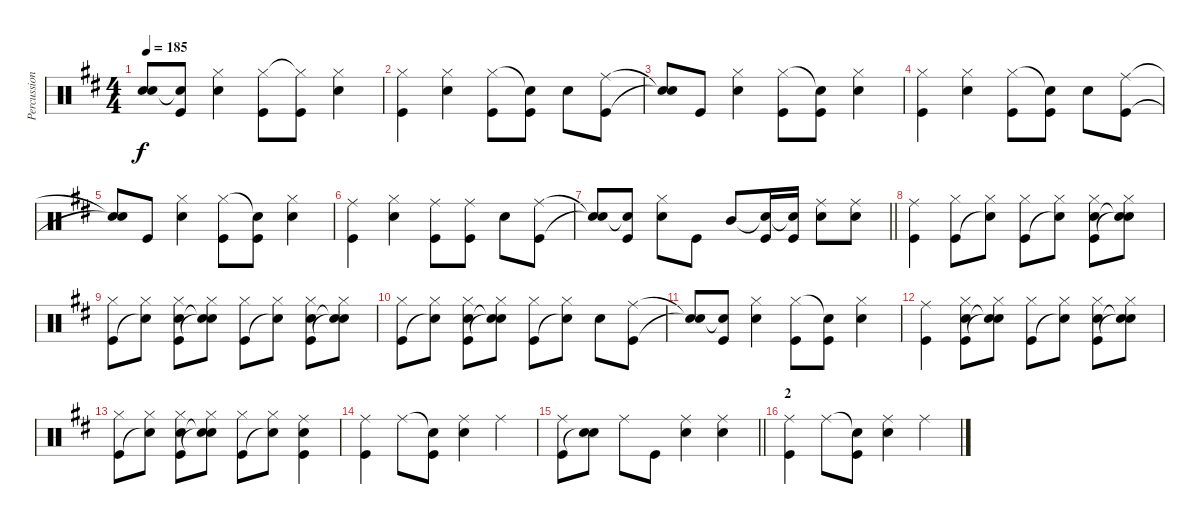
\track ("Percussion" "Percussion") {instrument percussion}
\staff {score}
\articulation defaults
\ts (4 4)
\tempo 185
\clef neutral
\ks d
("Snare (hit)"{t} "Snare (hit)"{t}).8{dy f} ("Snare (hit)"{t} "Kick (hit)").8 ("Hi-Hat (closed)" "Snare (hit) 2").4 ("Hi-Hat (closed)" "Kick (hit)").8 ("Hi-Hat (closed)"{t} "Kick (hit)").8 ("Hi-Hat (closed)" "Snare (hit) 2").4 |
("Hi-Hat (closed)" "Kick (hit)").4 ("Hi-Hat (closed)" "Snare (hit) 2").4 ("Hi-Hat (closed)" "Kick (hit)").8 ("Snare (hit)"{t} "Kick (hit)").8 "Snare (hit) 2".8 ("Ride (middle)" "Kick (hit)").8 |
("Snare (hit)"{t} "Snare (hit)"{t}).8 "Kick (hit)".8 ("Hi-Hat (closed)" "Snare (hit) 2").4 ("Hi-Hat (closed)" "Kick (hit)").8 ("Snare (hit)"{t} "Kick (hit)").8 ("Hi-Hat (closed)" "Snare (hit) 2").4 |
("Hi-Hat (closed)" "Kick (hit)").4 ("Hi-Hat (closed)" "Snare (hit) 2").4 ("Hi-Hat (closed)" "Kick (hit)").8 ("Snare (hit)"{t} "Kick (hit)").8 "Snare (hit) 2".8 ("Ride (middle)" "Kick (hit)").8 |
("Snare (hit)"{t} "Snare (hit)"{t}).8 "Kick (hit)".8 ("Hi-Hat (closed)" "Snare (hit) 2").4 ("Hi-Hat (closed)" "Kick (hit)").8 ("Snare (hit)"{t} "Kick (hit)").8 ("Hi-Hat (closed)" "Snare (hit) 2").4 |
("Ride (middle)" "Kick (hit)").4 ("Hi-Hat (closed)" "Snare (hit) 2").4 ("Ride (middle)" "Kick (hit)").8 ("Ride (middle)" "Kick (hit)").8 "Snare (hit) 2".8 ("Ride (middle)" "Kick (hit)").8 |
\barLineRight lightlight
("Snare (hit)"{t} "Snare (hit)"{t}).8 ("Snare (hit)"{t} "Kick (hit)").8 ("Hi-Hat (closed)" "Snare (hit) 2").8 "Kick (hit)".8 "Mid Tom (hit)".8 ("Snare (hit)"{t} "Kick (hit)").16 ("Snare (hit)"{t} "Kick (hit)").16 ("Ride (middle)" "Snare (hit) 2").8 ("Ride (middle)" "Snare (hit) 2").8 |
("Ride (middle)" "Kick (hit)").4 ("Hi-Hat (closed)" "Kick (hit)").8 ("Hi-Hat (closed)" "Snare (hit)"{t}).8 ("Hi-Hat (closed)" "Kick (hit)").8 ("Hi-Hat (closed)" "Snare (hit)"{t}).8 ("Hi-Hat (closed)" "Snare (hit) 2" "Kick (hit)").8 ("Hi-Hat (closed)" "Snare (hit)"{t} "Snare (hit)"{t}).8 |
("Hi-Hat (closed)" "Kick (hit)").8 ("Hi-Hat (closed)" "Snare (hit)"{t}).8 ("Hi-Hat (closed)" "Snare (hit) 2" "Kick (hit)").8 ("Hi-Hat (closed)" "Snare (hit)"{t} "Snare (hit)"{t}).8 ("Hi-Hat (closed)" "Kick (hit)").8 ("Hi-Hat (closed)" "Snare (hit)"{t}).8 ("Hi-Hat (closed)" "Snare (hit) 2" "Kick (hit)").8 ("Hi-Hat (closed)" "Snare (hit)"{t} "Snare (hit)"{t}).8 |
("Hi-Hat (closed)" "Kick (hit)").8 ("Hi-Hat (closed)" "Snare (hit)"{t}).8 ("Hi-Hat (closed)" "Snare (hit) 2" "Kick (hit)").8 ("Hi-Hat (closed)" "Snare (hit)"{t} "Snare (hit)"{t}).8 ("Hi-Hat (closed)" "Kick (hit)").8 ("Hi-Hat (closed)" "Snare (hit)"{t}).8 "Snare (hit) 2".8 ("Ride (middle)" "Kick (hit)").8 |
("Snare (hit)"{t} "Snare (hit)"{t}).8 ("Snare (hit)"{t} "Kick (hit)").8 ("Hi-Hat (closed)" "Snare (hit) 2").4 ("Hi-Hat (closed)" "Kick (hit)").8 ("Snare (hit)"{t} "Kick (hit)").8 ("Hi-Hat (closed)" "Snare (hit) 2").4 |
("Ride (middle)" "Kick (hit)").4 ("Hi-Hat (closed)" "Snare (hit) 2" "Kick (hit)").8 ("Hi-Hat (closed)" "Snare (hit)"{t} "Snare (hit)"{t}).8 ("Hi-Hat (closed)" "Kick (hit)").8 ("Hi-Hat (closed)" "Snare (hit)"{t}).8 ("Hi-Hat (closed)" "Snare (hit) 2" "Kick (hit)").8 ("Hi-Hat (closed)" "Snare (hit)"{t} "Snare (hit)"{t}).8 |
("Hi-Hat (closed)" "Kick (hit)").8 ("Hi-Hat (closed)" "Snare (hit)"{t}).8 ("Hi-Hat (closed)" "Snare (hit) 2" "Kick (hit)").8 ("Hi-Hat (closed)" "Snare (hit)"{t} "Snare (hit)"{t}).8 ("Hi-Hat (closed)" "Kick (hit)").8 ("Hi-Hat (closed)" "Snare (hit)"{t}).8 ("Ride (middle)" "Snare (hit) 2" "Kick (hit)").4 |
("Ride (middle)" "Kick (hit)").4 "Ride (middle)".8 ("Snare (hit)"{t} "Kick (hit)").8 ("Ride (middle)" "Snare (hit) 2").4 "Ride (middle)".4 |
\barLineRight lightlight
("Ride (middle)" "Kick (hit)").8 ("Snare (hit) 2" "Snare (hit)"{t}).8 "Ride (middle)".8 "Kick (hit)".8 ("Ride (middle)" "Snare (hit) 2").4 ("Ride (middle)" "Snare (hit) 2").4 |
\section ("" "2")
("Ride (middle)" "Kick (hit)").4 "Ride (middle)".8 ("Snare (hit)"{t} "Kick (hit)").8 ("Ride (middle)" "Snare (hit) 2").4 "Ride (middle)".4
